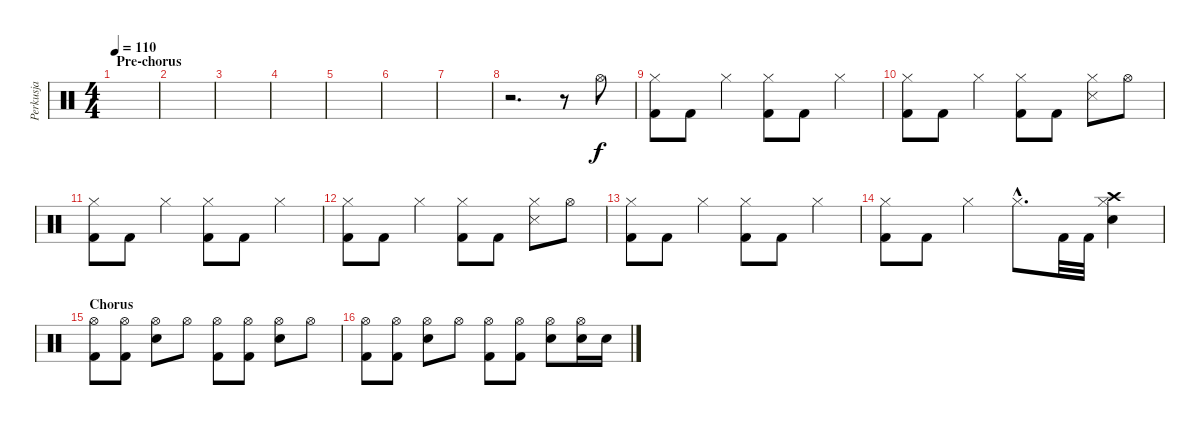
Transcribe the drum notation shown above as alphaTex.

\track ("Perkusja" "Perkusja") {instrument percussion}
\staff {score}
\articulation defaults
\ts (4 4)
\section ("" "Pre-chorus")
\tempo 110
\clef neutral
\ks c
|
|
|
|
|
|
|
r.2{d} r.8 "Hi-Hat (open)".8 |
("Hi-Hat (closed)" "Kick (hit) 2").8 "Kick (hit) 2".8 "Hi-Hat (closed)".4 ("Hi-Hat (closed)" "Kick (hit) 2").8 "Kick (hit) 2".8 "Hi-Hat (closed)".4 |
("Hi-Hat (closed)" "Kick (hit) 2").8 "Kick (hit) 2".8 "Hi-Hat (closed)".4 ("Hi-Hat (closed)" "Kick (hit) 2").8 "Kick (hit) 2".8 ("Hi-Hat (closed)" "Snare (side stick) 3").8 "Hi-Hat (open)".8 |
("Hi-Hat (closed)" "Kick (hit) 2").8 "Kick (hit) 2".8 "Hi-Hat (closed)".4 ("Hi-Hat (closed)" "Kick (hit) 2").8 "Kick (hit) 2".8 "Hi-Hat (closed)".4 |
("Hi-Hat (closed)" "Kick (hit) 2").8 "Kick (hit) 2".8 "Hi-Hat (closed)".4 ("Hi-Hat (closed)" "Kick (hit) 2").8 "Kick (hit) 2".8 ("Hi-Hat (closed)" "Snare (side stick) 3").8 "Hi-Hat (open)".8 |
("Hi-Hat (closed)" "Kick (hit) 2").8 "Kick (hit) 2".8 "Hi-Hat (closed)".4 ("Hi-Hat (closed)" "Kick (hit) 2").8 "Kick (hit) 2".8 "Hi-Hat (closed)".4 |
("Hi-Hat (closed)" "Kick (hit) 2").8 "Kick (hit) 2".8 "Hi-Hat (closed)".4 "Hi-Hat (closed)"{hac}.8{d} "Kick (hit) 2".32 "Kick (hit) 2".32 ("Hi-Hat (closed)" "Snare (hit) 2" "Crash high (hit)").4 |
\section ("" "Chorus")
("Hi-Hat (open)" "Kick (hit) 2").8 ("Hi-Hat (open)" "Kick (hit) 2").8 ("Hi-Hat (open)" "Snare (hit) 2").8 "Hi-Hat (open)".8 ("Hi-Hat (open)" "Kick (hit) 2").8 ("Hi-Hat (open)" "Kick (hit) 2").8 ("Hi-Hat (open)" "Snare (hit) 2").8 "Hi-Hat (open)".8 |
("Hi-Hat (open)" "Kick (hit) 2").8 ("Hi-Hat (open)" "Kick (hit) 2").8 ("Hi-Hat (open)" "Snare (hit) 2").8 "Hi-Hat (open)".8 ("Hi-Hat (open)" "Kick (hit) 2").8 ("Hi-Hat (open)" "Kick (hit) 2").8 ("Hi-Hat (open)" "Snare (hit) 2").8 ("Hi-Hat (open)" "Snare (hit) 2").16 "Snare (hit) 2".16
